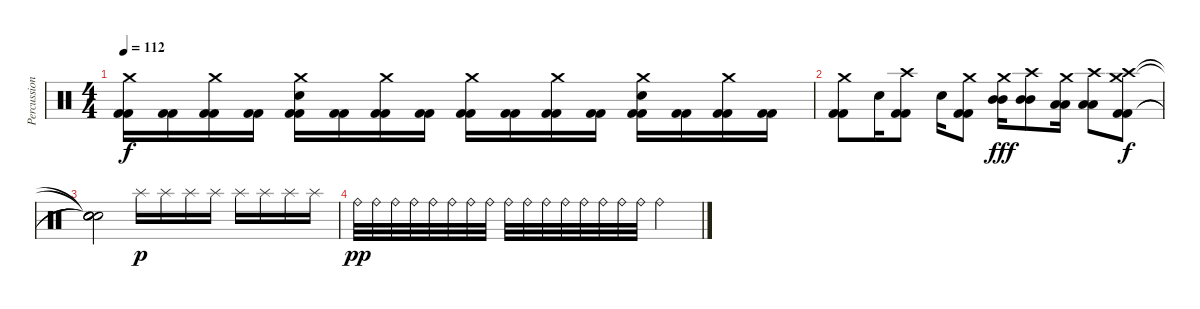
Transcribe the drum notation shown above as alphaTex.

\track ("Percussion" "Percussion") {instrument percussion}
\staff {score}
\articulation defaults
\ts (4 4)
\tempo 112
\clef neutral
\ks c
("Kick (hit) 2" "Kick (hit) 2" "Crash medium (hit)").16{dy f} ("Kick (hit) 2" "Kick (hit) 2").16 ("Kick (hit) 2" "Kick (hit) 2" "Crash medium (hit)").16 ("Kick (hit) 2" "Kick (hit) 2").16 ("Kick (hit) 2" "Kick (hit) 2" "Crash medium (hit)" "Electric Snare (hit)").16 ("Kick (hit) 2" "Kick (hit) 2").16 ("Kick (hit) 2" "Kick (hit) 2" "Crash medium (hit)").16 ("Kick (hit) 2" "Kick (hit) 2").16 ("Kick (hit) 2" "Kick (hit) 2" "Crash medium (hit)").16 ("Kick (hit) 2" "Kick (hit) 2").16 ("Kick (hit) 2" "Kick (hit) 2" "Crash medium (hit)").16 ("Kick (hit) 2" "Kick (hit) 2").16 ("Kick (hit) 2" "Kick (hit) 2" "Crash medium (hit)" "Electric Snare (hit)").16 ("Kick (hit) 2" "Kick (hit) 2").16 ("Kick (hit) 2" "Kick (hit) 2" "Crash medium (hit)").16 ("Kick (hit) 2" "Kick (hit) 2").16 |
("Kick (hit) 2" "Kick (hit) 2" "Crash medium (hit)").8 "Electric Snare (hit)".16 ("Kick (hit) 2" "Kick (hit) 2" "Crash high (hit)").8 "Electric Snare (hit)".16 ("Kick (hit) 2" "Kick (hit) 2" "Crash medium (hit)").8 ("Mid Tom (hit)" "Mid Tom (hit)" "Crash medium (hit)").16{dy fff} ("Mid Tom (hit)" "Mid Tom (hit)" "Crash high (hit)").8 ("Low Tom (hit)" "Low Tom (hit)" "Crash medium (hit)").16 ("Low Tom (hit)" "Low Tom (hit)" "Crash high (hit)").8 ("Kick (hit) 2" "Kick (hit) 2" "Crash medium (hit)" "Crash high (hit)").8{dy f} |
("Snare (hit)"{t} "Snare (hit)"{t} "Snare (hit)"{t} "Snare (hit)"{t}).2 "Splash (hit)".16{dy p} "Splash (hit)".16 "Splash (hit)".16 "Splash (hit)".16 "Splash (hit)".16 "Splash (hit)".16 "Splash (hit)".16 "Splash (hit)".16 |
"Ride (bell)".32{dy pp} "Ride (bell)".32 "Ride (bell)".32 "Ride (bell)".32 "Ride (bell)".32 "Ride (bell)".32 "Ride (bell)".32 "Ride (bell)".32 "Ride (bell)".32 "Ride (bell)".32 "Ride (bell)".32 "Ride (bell)".32 "Ride (bell)".32 "Ride (bell)".32 "Ride (bell)".32 "Ride (bell)".32 "Ride (bell)".2
